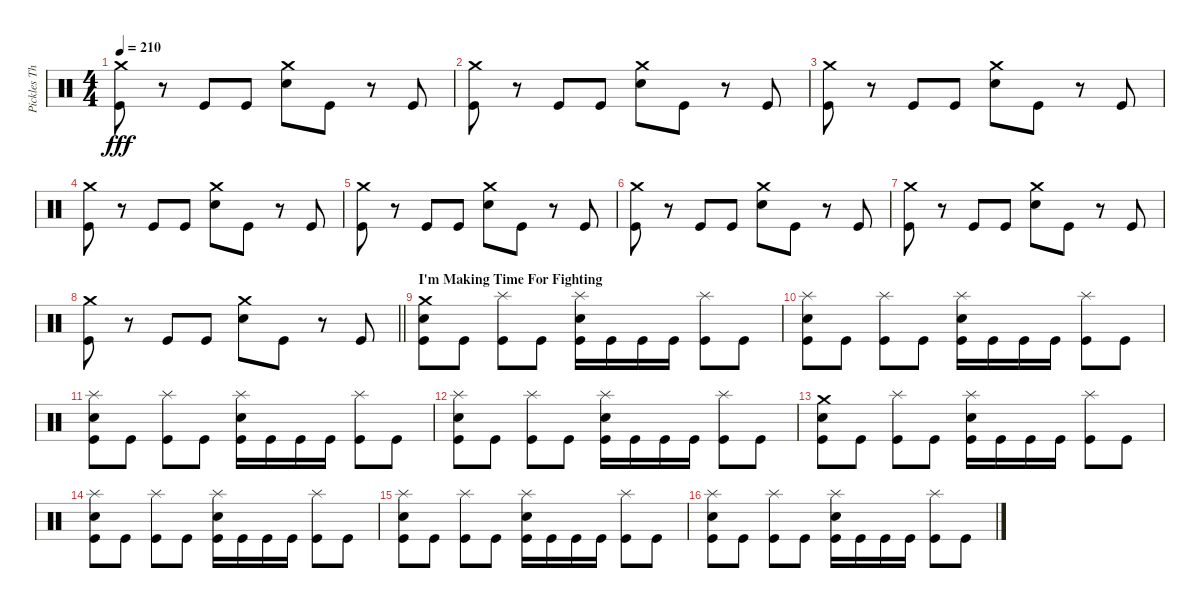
\track ("Pickles The Drummer (Drums)" "Pickles Th") {instrument percussion}
\staff {score}
\articulation defaults
\ts (4 4)
\tempo 210
\clef neutral
\ks c
("Crash medium (hit)" "Kick (hit)").8{dy fff} r.8 "Kick (hit)".8 "Kick (hit)".8 ("Crash medium (hit)" "Snare (hit) 2").8 "Kick (hit)".8 r.8 "Kick (hit)".8 |
("Crash medium (hit)" "Kick (hit)").8 r.8 "Kick (hit)".8 "Kick (hit)".8 ("Crash medium (hit)" "Snare (hit) 2").8 "Kick (hit)".8 r.8 "Kick (hit)".8 |
("Crash medium (hit)" "Kick (hit)").8 r.8 "Kick (hit)".8 "Kick (hit)".8 ("Crash medium (hit)" "Snare (hit) 2").8 "Kick (hit)".8 r.8 "Kick (hit)".8 |
("Crash medium (hit)" "Kick (hit)").8 r.8 "Kick (hit)".8 "Kick (hit)".8 ("Crash medium (hit)" "Snare (hit) 2").8 "Kick (hit)".8 r.8 "Kick (hit)".8 |
("Crash medium (hit)" "Kick (hit)").8 r.8 "Kick (hit)".8 "Kick (hit)".8 ("Crash medium (hit)" "Snare (hit) 2").8 "Kick (hit)".8 r.8 "Kick (hit)".8 |
("Crash medium (hit)" "Kick (hit)").8 r.8 "Kick (hit)".8 "Kick (hit)".8 ("Crash medium (hit)" "Snare (hit) 2").8 "Kick (hit)".8 r.8 "Kick (hit)".8 |
("Crash medium (hit)" "Kick (hit)").8 r.8 "Kick (hit)".8 "Kick (hit)".8 ("Crash medium (hit)" "Snare (hit) 2").8 "Kick (hit)".8 r.8 "Kick (hit)".8 |
\barLineRight lightlight
("Crash medium (hit)" "Kick (hit)").8 r.8 "Kick (hit)".8 "Kick (hit)".8 ("Crash medium (hit)" "Snare (hit) 2").8 "Kick (hit)".8 r.8 "Kick (hit)".8 |
\section ("" "I'm Making Time For Fighting")
("Crash medium (hit)" "Snare (hit) 2" "Kick (hit)").8 "Kick (hit)".8 ("Splash (hit)" "Kick (hit)").8 "Kick (hit)".8 ("Splash (hit)" "Snare (hit) 2" "Kick (hit)").16 "Kick (hit)".16 "Kick (hit)".16 "Kick (hit)".16 ("Splash (hit)" "Kick (hit)").8 "Kick (hit)".8 |
("Splash (hit)" "Snare (hit) 2" "Kick (hit)").8 "Kick (hit)".8 ("Splash (hit)" "Kick (hit)").8 "Kick (hit)".8 ("Splash (hit)" "Snare (hit) 2" "Kick (hit)").16 "Kick (hit)".16 "Kick (hit)".16 "Kick (hit)".16 ("Splash (hit)" "Kick (hit)").8 "Kick (hit)".8 |
("Splash (hit)" "Snare (hit) 2" "Kick (hit)").8 "Kick (hit)".8 ("Splash (hit)" "Kick (hit)").8 "Kick (hit)".8 ("Splash (hit)" "Snare (hit) 2" "Kick (hit)").16 "Kick (hit)".16 "Kick (hit)".16 "Kick (hit)".16 ("Splash (hit)" "Kick (hit)").8 "Kick (hit)".8 |
("Splash (hit)" "Snare (hit) 2" "Kick (hit)").8 "Kick (hit)".8 ("Splash (hit)" "Kick (hit)").8 "Kick (hit)".8 ("Splash (hit)" "Snare (hit) 2" "Kick (hit)").16 "Kick (hit)".16 "Kick (hit)".16 "Kick (hit)".16 ("Splash (hit)" "Kick (hit)").8 "Kick (hit)".8 |
("Crash medium (hit)" "Snare (hit) 2" "Kick (hit)").8 "Kick (hit)".8 ("Splash (hit)" "Kick (hit)").8 "Kick (hit)".8 ("Splash (hit)" "Snare (hit) 2" "Kick (hit)").16 "Kick (hit)".16 "Kick (hit)".16 "Kick (hit)".16 ("Splash (hit)" "Kick (hit)").8 "Kick (hit)".8 |
("Splash (hit)" "Snare (hit) 2" "Kick (hit)").8 "Kick (hit)".8 ("Splash (hit)" "Kick (hit)").8 "Kick (hit)".8 ("Splash (hit)" "Snare (hit) 2" "Kick (hit)").16 "Kick (hit)".16 "Kick (hit)".16 "Kick (hit)".16 ("Splash (hit)" "Kick (hit)").8 "Kick (hit)".8 |
("Splash (hit)" "Snare (hit) 2" "Kick (hit)").8 "Kick (hit)".8 ("Splash (hit)" "Kick (hit)").8 "Kick (hit)".8 ("Splash (hit)" "Snare (hit) 2" "Kick (hit)").16 "Kick (hit)".16 "Kick (hit)".16 "Kick (hit)".16 ("Splash (hit)" "Kick (hit)").8 "Kick (hit)".8 |
("Splash (hit)" "Snare (hit) 2" "Kick (hit)").8 "Kick (hit)".8 ("Splash (hit)" "Kick (hit)").8 "Kick (hit)".8 ("Splash (hit)" "Snare (hit) 2" "Kick (hit)").16 "Kick (hit)".16 "Kick (hit)".16 "Kick (hit)".16 ("Splash (hit)" "Kick (hit)").8 "Kick (hit)".8
